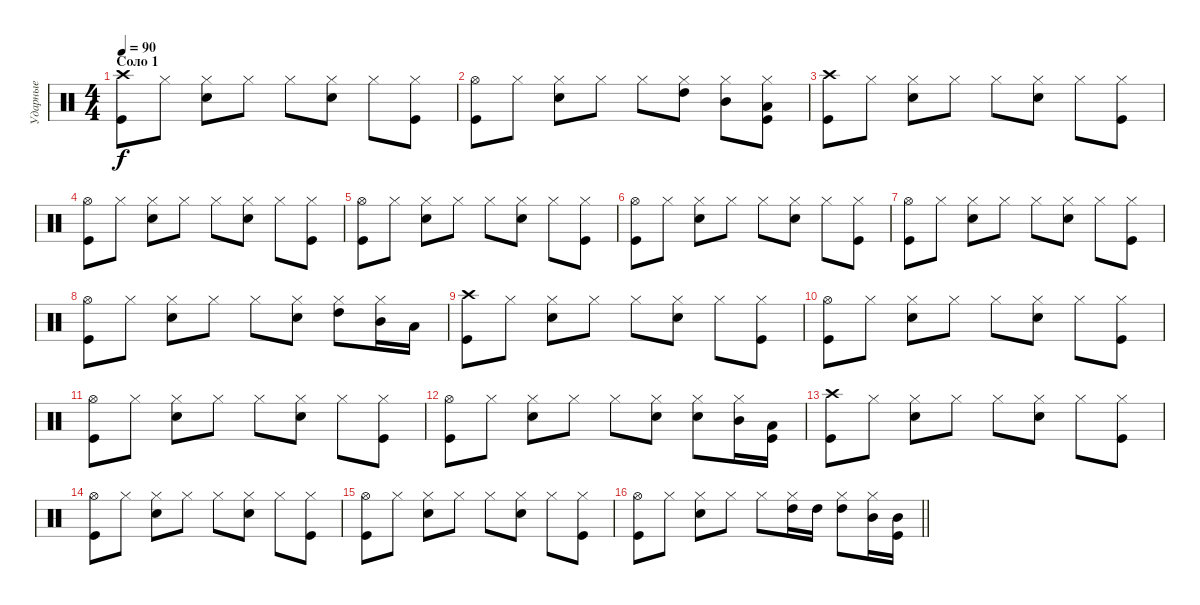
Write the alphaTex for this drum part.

\track ("Ударные" "Ударные") {instrument percussion}
\staff {score}
\articulation defaults
\ts (4 4)
\section ("" "Соло 1")
\tempo 90
\clef neutral
\ks c
("Crash high (hit)" "Kick (hit)").8{dy f} "Hi-Hat (closed)".8 ("Hi-Hat (closed)" "Electric Snare (hit)").8 "Hi-Hat (closed)".8 "Hi-Hat (closed)".8 ("Hi-Hat (closed)" "Electric Snare (hit)").8 "Hi-Hat (closed)".8 ("Hi-Hat (closed)" "Kick (hit)").8 |
("Hi-Hat (open)" "Kick (hit)").8 "Hi-Hat (closed)".8 ("Hi-Hat (closed)" "Electric Snare (hit)").8 "Hi-Hat (closed)".8 "Hi-Hat (closed)".8 ("Hi-Hat (closed)" "High Tom (hit)").8 ("Hi-Hat (closed)" "Mid Tom (hit)").8 ("Hi-Hat (closed)" "Kick (hit)" "Low Tom (hit)").8 |
("Crash high (hit)" "Kick (hit)").8 "Hi-Hat (closed)".8 ("Hi-Hat (closed)" "Electric Snare (hit)").8 "Hi-Hat (closed)".8 "Hi-Hat (closed)".8 ("Hi-Hat (closed)" "Electric Snare (hit)").8 "Hi-Hat (closed)".8 ("Hi-Hat (closed)" "Kick (hit)").8 |
("Hi-Hat (open)" "Kick (hit)").8 "Hi-Hat (closed)".8 ("Hi-Hat (closed)" "Electric Snare (hit)").8 "Hi-Hat (closed)".8 "Hi-Hat (closed)".8 ("Hi-Hat (closed)" "Electric Snare (hit)").8 "Hi-Hat (closed)".8 ("Hi-Hat (closed)" "Kick (hit)").8 |
("Hi-Hat (open)" "Kick (hit)").8 "Hi-Hat (closed)".8 ("Hi-Hat (closed)" "Electric Snare (hit)").8 "Hi-Hat (closed)".8 "Hi-Hat (closed)".8 ("Hi-Hat (closed)" "Electric Snare (hit)").8 "Hi-Hat (closed)".8 ("Hi-Hat (closed)" "Kick (hit)").8 |
("Hi-Hat (open)" "Kick (hit)").8 "Hi-Hat (closed)".8 ("Hi-Hat (closed)" "Electric Snare (hit)").8 "Hi-Hat (closed)".8 "Hi-Hat (closed)".8 ("Hi-Hat (closed)" "Electric Snare (hit)").8 "Hi-Hat (closed)".8 ("Hi-Hat (closed)" "Kick (hit)").8 |
("Hi-Hat (open)" "Kick (hit)").8 "Hi-Hat (closed)".8 ("Hi-Hat (closed)" "Electric Snare (hit)").8 "Hi-Hat (closed)".8 "Hi-Hat (closed)".8 ("Hi-Hat (closed)" "Electric Snare (hit)").8 "Hi-Hat (closed)".8 ("Hi-Hat (closed)" "Kick (hit)").8 |
("Hi-Hat (open)" "Kick (hit)").8 "Hi-Hat (closed)".8 ("Hi-Hat (closed)" "Electric Snare (hit)").8 "Hi-Hat (closed)".8 "Hi-Hat (closed)".8 ("Hi-Hat (closed)" "Electric Snare (hit)").8 ("Hi-Hat (closed)" "High Tom (hit)").8 ("Hi-Hat (closed)" "Mid Tom (hit)").16 "Low Tom (hit)".16 |
("Crash high (hit)" "Kick (hit)").8 "Hi-Hat (closed)".8 ("Hi-Hat (closed)" "Electric Snare (hit)").8 "Hi-Hat (closed)".8 "Hi-Hat (closed)".8 ("Hi-Hat (closed)" "Electric Snare (hit)").8 "Hi-Hat (closed)".8 ("Hi-Hat (closed)" "Kick (hit)").8 |
("Hi-Hat (open)" "Kick (hit)").8 "Hi-Hat (closed)".8 ("Hi-Hat (closed)" "Electric Snare (hit)").8 "Hi-Hat (closed)".8 "Hi-Hat (closed)".8 ("Hi-Hat (closed)" "Electric Snare (hit)").8 "Hi-Hat (closed)".8 ("Hi-Hat (closed)" "Kick (hit)").8 |
("Hi-Hat (open)" "Kick (hit)").8 "Hi-Hat (closed)".8 ("Hi-Hat (closed)" "Electric Snare (hit)").8 "Hi-Hat (closed)".8 "Hi-Hat (closed)".8 ("Hi-Hat (closed)" "Electric Snare (hit)").8 "Hi-Hat (closed)".8 ("Hi-Hat (closed)" "Kick (hit)").8 |
("Hi-Hat (open)" "Kick (hit)").8 "Hi-Hat (closed)".8 ("Hi-Hat (closed)" "Electric Snare (hit)").8 "Hi-Hat (closed)".8 "Hi-Hat (closed)".8 ("Hi-Hat (closed)" "Electric Snare (hit)").8 ("Hi-Hat (closed)" "Electric Snare (hit)").8 ("Hi-Hat (closed)" "Mid Tom (hit)").16 ("Low Tom (hit)" "Kick (hit)").16 |
("Crash high (hit)" "Kick (hit)").8 "Hi-Hat (closed)".8 ("Hi-Hat (closed)" "Electric Snare (hit)").8 "Hi-Hat (closed)".8 "Hi-Hat (closed)".8 ("Hi-Hat (closed)" "Electric Snare (hit)").8 "Hi-Hat (closed)".8 ("Hi-Hat (closed)" "Kick (hit)").8 |
("Hi-Hat (open)" "Kick (hit)").8 "Hi-Hat (closed)".8 ("Hi-Hat (closed)" "Electric Snare (hit)").8 "Hi-Hat (closed)".8 "Hi-Hat (closed)".8 ("Hi-Hat (closed)" "Electric Snare (hit)").8 "Hi-Hat (closed)".8 ("Hi-Hat (closed)" "Kick (hit)").8 |
("Hi-Hat (open)" "Kick (hit)").8 "Hi-Hat (closed)".8 ("Hi-Hat (closed)" "Electric Snare (hit)").8 "Hi-Hat (closed)".8 "Hi-Hat (closed)".8 ("Hi-Hat (closed)" "Electric Snare (hit)").8 "Hi-Hat (closed)".8 ("Hi-Hat (closed)" "Kick (hit)").8 |
\barLineRight lightlight
("Hi-Hat (open)" "Kick (hit)").8 "Hi-Hat (closed)".8 ("Hi-Hat (closed)" "Electric Snare (hit)").8 "Hi-Hat (closed)".8 "Hi-Hat (closed)".8 ("Hi-Hat (closed)" "High Tom (hit)").16 "High Tom (hit)".16 ("Hi-Hat (closed)" "High Tom (hit)").8 ("Hi-Hat (closed)" "Mid Tom (hit)").16 ("Kick (hit)" "Mid Tom (hit)").16
